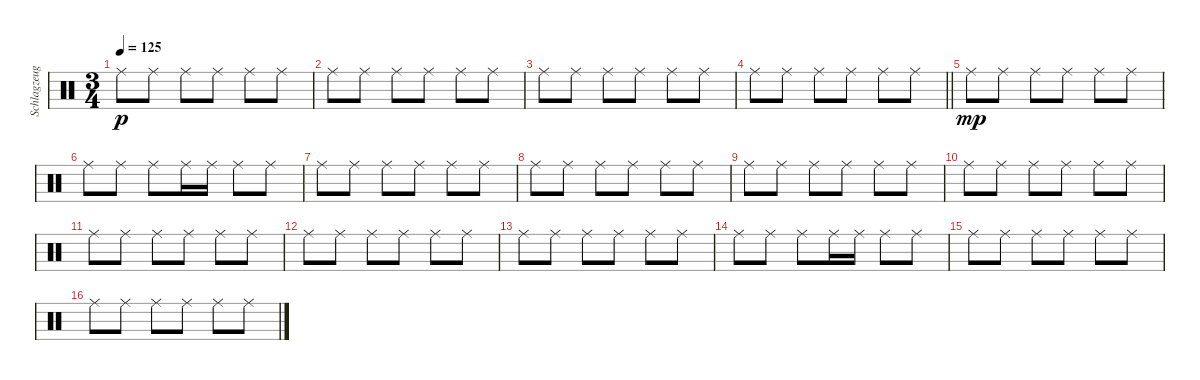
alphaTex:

\track ("Schlagzeug" "Schlagzeug") {instrument percussion}
\staff {score}
\articulation defaults
\ts (3 4)
\tempo 125
\clef neutral
\ks c "Ride (middle)".8{dy p} "Ride (middle)".8 "Ride (middle)".8 "Ride (middle)".8 "Ride (middle)".8 "Ride (middle)".8
|
"Ride (middle)".8 "Ride (middle)".8 "Ride (middle)".8 "Ride (middle)".8 "Ride (middle)".8 "Ride (middle)".8 |
"Ride (middle)".8 "Ride (middle)".8 "Ride (middle)".8 "Ride (middle)".8 "Ride (middle)".8 "Ride (middle)".8 |
\barLineRight lightlight "Ride (middle)".8 "Ride (middle)".8 "Ride (middle)".8 "Ride (middle)".8 "Ride (middle)".8 "Ride (middle)".8
|
\section ("" "")
"Ride (middle)".8{dy mp} "Ride (middle)".8 "Ride (middle)".8 "Ride (middle)".8 "Ride (middle)".8 "Ride (middle)".8 |
"Ride (middle)".8 "Ride (middle)".8 "Ride (middle)".8 "Ride (middle)".16 "Ride (middle)".16 "Ride (middle)".8 "Ride (middle)".8 |
"Ride (middle)".8 "Ride (middle)".8 "Ride (middle)".8 "Ride (middle)".8 "Ride (middle)".8 "Ride (middle)".8 |
"Ride (middle)".8 "Ride (middle)".8 "Ride (middle)".8 "Ride (middle)".8 "Ride (middle)".8 "Ride (middle)".8 |
"Ride (middle)".8 "Ride (middle)".8 "Ride (middle)".8 "Ride (middle)".8 "Ride (middle)".8 "Ride (middle)".8 |
"Ride (middle)".8 "Ride (middle)".8 "Ride (middle)".8 "Ride (middle)".8 "Ride (middle)".8 "Ride (middle)".8 |
"Ride (middle)".8 "Ride (middle)".8 "Ride (middle)".8 "Ride (middle)".8 "Ride (middle)".8 "Ride (middle)".8 |
"Ride (middle)".8 "Ride (middle)".8 "Ride (middle)".8 "Ride (middle)".8 "Ride (middle)".8 "Ride (middle)".8 |
"Ride (middle)".8 "Ride (middle)".8 "Ride (middle)".8 "Ride (middle)".8 "Ride (middle)".8 "Ride (middle)".8 |
"Ride (middle)".8 "Ride (middle)".8 "Ride (middle)".8 "Ride (middle)".16 "Ride (middle)".16 "Ride (middle)".8 "Ride (middle)".8 |
"Ride (middle)".8 "Ride (middle)".8 "Ride (middle)".8 "Ride (middle)".8 "Ride (middle)".8 "Ride (middle)".8 |
"Ride (middle)".8 "Ride (middle)".8 "Ride (middle)".8 "Ride (middle)".8 "Ride (middle)".8 "Ride (middle)".8
